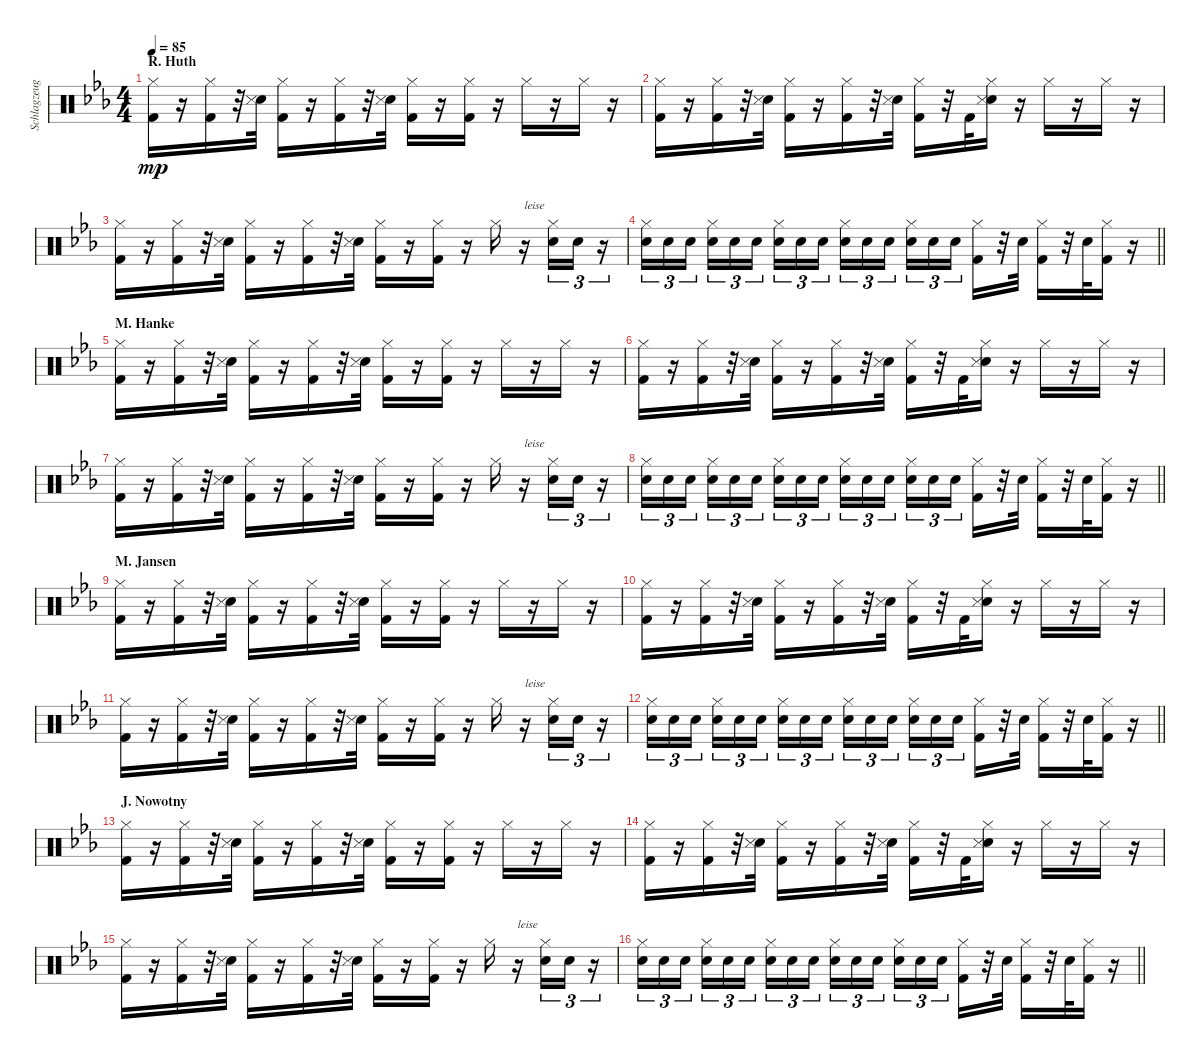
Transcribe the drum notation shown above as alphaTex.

\track ("Schlagzeug" "Schlagzeug") {instrument percussion}
\staff {score}
\articulation defaults
\ts (4 4)
\section ("" "R. Huth")
\tempo 85
\clef neutral
\ks cminor
("Hi-Hat (closed)" "Kick (hit) 2").16{dy mp} r.16 ("Hi-Hat (closed)" "Kick (hit) 2").16 r.32 ("Electric Snare (hit)" "Snare (side stick) 3").32 ("Hi-Hat (closed)" "Kick (hit) 2").16 r.16 ("Hi-Hat (closed)" "Kick (hit) 2").16 r.32 ("Electric Snare (hit)" "Snare (side stick) 3").32 ("Hi-Hat (closed)" "Kick (hit) 2").16 r.16 ("Hi-Hat (closed)" "Kick (hit) 2").16 r.16 "Hi-Hat (closed)".16 r.16 "Hi-Hat (closed)".16 r.16 |
("Hi-Hat (closed)" "Kick (hit) 2").16 r.16 ("Hi-Hat (closed)" "Kick (hit) 2").16 r.32 ("Electric Snare (hit)" "Snare (side stick) 3").32 ("Hi-Hat (closed)" "Kick (hit) 2").16 r.16 ("Hi-Hat (closed)" "Kick (hit) 2").16 r.32 ("Electric Snare (hit)" "Snare (side stick) 3").32 ("Hi-Hat (closed)" "Kick (hit) 2").16 r.32 "Kick (hit) 2".32 ("Hi-Hat (closed)" "Electric Snare (hit)" "Snare (side stick) 3").16 r.16 "Hi-Hat (closed)".16 r.16 "Hi-Hat (closed)".16 r.16 |
("Hi-Hat (closed)" "Kick (hit) 2").16 r.16 ("Hi-Hat (closed)" "Kick (hit) 2").16 r.32 ("Electric Snare (hit)" "Snare (side stick) 3").32 ("Hi-Hat (closed)" "Kick (hit) 2").16 r.16 ("Hi-Hat (closed)" "Kick (hit) 2").16 r.32 ("Electric Snare (hit)" "Snare (side stick) 3").32 ("Hi-Hat (closed)" "Kick (hit) 2").16 r.16 ("Hi-Hat (closed)" "Kick (hit) 2").16 r.16 "Hi-Hat (closed)".16 r.16{txt "leise" volume 5} ("Hi-Hat (closed)" "Electric Snare (hit)").16{tu (3 2)} "Electric Snare (hit)".16{tu (3 2)} r.16{tu (3 2)} |
\barLineRight lightlight
("Hi-Hat (closed)" "Electric Snare (hit)").16{tu (3 2) volume 15} "Electric Snare (hit)".16{tu (3 2)} "Electric Snare (hit)".16{tu (3 2) beam splitsecondary} ("Hi-Hat (closed)" "Electric Snare (hit)").16{tu (3 2)} "Electric Snare (hit)".16{tu (3 2)} "Electric Snare (hit)".16{tu (3 2)} ("Hi-Hat (closed)" "Electric Snare (hit)").16{tu (3 2)} "Electric Snare (hit)".16{tu (3 2)} "Electric Snare (hit)".16{tu (3 2) beam splitsecondary} ("Hi-Hat (closed)" "Electric Snare (hit)").16{tu (3 2)} "Electric Snare (hit)".16{tu (3 2)} "Electric Snare (hit)".16{tu (3 2)} ("Hi-Hat (closed)" "Electric Snare (hit)").16{tu (3 2)} "Electric Snare (hit)".16{tu (3 2)} "Electric Snare (hit)".16{tu (3 2) beam splitsecondary} ("Hi-Hat (closed)" "Kick (hit) 2").16 r.32 "Electric Snare (hit)".32 ("Hi-Hat (closed)" "Kick (hit) 2").16 r.32 "Electric Snare (hit)".32 ("Hi-Hat (closed)" "Kick (hit) 2").16 r.16 |
\section ("" "M. Hanke")
("Hi-Hat (closed)" "Kick (hit) 2").16 r.16 ("Hi-Hat (closed)" "Kick (hit) 2").16 r.32 ("Electric Snare (hit)" "Snare (side stick) 3").32 ("Hi-Hat (closed)" "Kick (hit) 2").16 r.16 ("Hi-Hat (closed)" "Kick (hit) 2").16 r.32 ("Electric Snare (hit)" "Snare (side stick) 3").32 ("Hi-Hat (closed)" "Kick (hit) 2").16 r.16 ("Hi-Hat (closed)" "Kick (hit) 2").16 r.16 "Hi-Hat (closed)".16 r.16 "Hi-Hat (closed)".16 r.16 |
("Hi-Hat (closed)" "Kick (hit) 2").16 r.16 ("Hi-Hat (closed)" "Kick (hit) 2").16 r.32 ("Electric Snare (hit)" "Snare (side stick) 3").32 ("Hi-Hat (closed)" "Kick (hit) 2").16 r.16 ("Hi-Hat (closed)" "Kick (hit) 2").16 r.32 ("Electric Snare (hit)" "Snare (side stick) 3").32 ("Hi-Hat (closed)" "Kick (hit) 2").16 r.32 "Kick (hit) 2".32 ("Hi-Hat (closed)" "Electric Snare (hit)" "Snare (side stick) 3").16 r.16 "Hi-Hat (closed)".16 r.16 "Hi-Hat (closed)".16 r.16 |
("Hi-Hat (closed)" "Kick (hit) 2").16 r.16 ("Hi-Hat (closed)" "Kick (hit) 2").16 r.32 ("Electric Snare (hit)" "Snare (side stick) 3").32 ("Hi-Hat (closed)" "Kick (hit) 2").16 r.16 ("Hi-Hat (closed)" "Kick (hit) 2").16 r.32 ("Electric Snare (hit)" "Snare (side stick) 3").32 ("Hi-Hat (closed)" "Kick (hit) 2").16 r.16 ("Hi-Hat (closed)" "Kick (hit) 2").16 r.16 "Hi-Hat (closed)".16 r.16{txt "leise" volume 5} ("Hi-Hat (closed)" "Electric Snare (hit)").16{tu (3 2)} "Electric Snare (hit)".16{tu (3 2)} r.16{tu (3 2)} |
\barLineRight lightlight
("Hi-Hat (closed)" "Electric Snare (hit)").16{tu (3 2) volume 15} "Electric Snare (hit)".16{tu (3 2)} "Electric Snare (hit)".16{tu (3 2) beam splitsecondary} ("Hi-Hat (closed)" "Electric Snare (hit)").16{tu (3 2)} "Electric Snare (hit)".16{tu (3 2)} "Electric Snare (hit)".16{tu (3 2)} ("Hi-Hat (closed)" "Electric Snare (hit)").16{tu (3 2)} "Electric Snare (hit)".16{tu (3 2)} "Electric Snare (hit)".16{tu (3 2) beam splitsecondary} ("Hi-Hat (closed)" "Electric Snare (hit)").16{tu (3 2)} "Electric Snare (hit)".16{tu (3 2)} "Electric Snare (hit)".16{tu (3 2)} ("Hi-Hat (closed)" "Electric Snare (hit)").16{tu (3 2)} "Electric Snare (hit)".16{tu (3 2)} "Electric Snare (hit)".16{tu (3 2) beam splitsecondary} ("Hi-Hat (closed)" "Kick (hit) 2").16 r.32 "Electric Snare (hit)".32 ("Hi-Hat (closed)" "Kick (hit) 2").16 r.32 "Electric Snare (hit)".32 ("Hi-Hat (closed)" "Kick (hit) 2").16 r.16 |
\section ("" "M. Jansen")
("Hi-Hat (closed)" "Kick (hit) 2").16 r.16 ("Hi-Hat (closed)" "Kick (hit) 2").16 r.32 ("Electric Snare (hit)" "Snare (side stick) 3").32 ("Hi-Hat (closed)" "Kick (hit) 2").16 r.16 ("Hi-Hat (closed)" "Kick (hit) 2").16 r.32 ("Electric Snare (hit)" "Snare (side stick) 3").32 ("Hi-Hat (closed)" "Kick (hit) 2").16 r.16 ("Hi-Hat (closed)" "Kick (hit) 2").16 r.16 "Hi-Hat (closed)".16 r.16 "Hi-Hat (closed)".16 r.16 |
("Hi-Hat (closed)" "Kick (hit) 2").16 r.16 ("Hi-Hat (closed)" "Kick (hit) 2").16 r.32 ("Electric Snare (hit)" "Snare (side stick) 3").32 ("Hi-Hat (closed)" "Kick (hit) 2").16 r.16 ("Hi-Hat (closed)" "Kick (hit) 2").16 r.32 ("Electric Snare (hit)" "Snare (side stick) 3").32 ("Hi-Hat (closed)" "Kick (hit) 2").16 r.32 "Kick (hit) 2".32 ("Hi-Hat (closed)" "Electric Snare (hit)" "Snare (side stick) 3").16 r.16 "Hi-Hat (closed)".16 r.16 "Hi-Hat (closed)".16 r.16 |
("Hi-Hat (closed)" "Kick (hit) 2").16 r.16 ("Hi-Hat (closed)" "Kick (hit) 2").16 r.32 ("Electric Snare (hit)" "Snare (side stick) 3").32 ("Hi-Hat (closed)" "Kick (hit) 2").16 r.16 ("Hi-Hat (closed)" "Kick (hit) 2").16 r.32 ("Electric Snare (hit)" "Snare (side stick) 3").32 ("Hi-Hat (closed)" "Kick (hit) 2").16 r.16 ("Hi-Hat (closed)" "Kick (hit) 2").16 r.16 "Hi-Hat (closed)".16 r.16{txt "leise" volume 5} ("Hi-Hat (closed)" "Electric Snare (hit)").16{tu (3 2)} "Electric Snare (hit)".16{tu (3 2)} r.16{tu (3 2)} |
\barLineRight lightlight
("Hi-Hat (closed)" "Electric Snare (hit)").16{tu (3 2) volume 15} "Electric Snare (hit)".16{tu (3 2)} "Electric Snare (hit)".16{tu (3 2) beam splitsecondary} ("Hi-Hat (closed)" "Electric Snare (hit)").16{tu (3 2)} "Electric Snare (hit)".16{tu (3 2)} "Electric Snare (hit)".16{tu (3 2)} ("Hi-Hat (closed)" "Electric Snare (hit)").16{tu (3 2)} "Electric Snare (hit)".16{tu (3 2)} "Electric Snare (hit)".16{tu (3 2) beam splitsecondary} ("Hi-Hat (closed)" "Electric Snare (hit)").16{tu (3 2)} "Electric Snare (hit)".16{tu (3 2)} "Electric Snare (hit)".16{tu (3 2)} ("Hi-Hat (closed)" "Electric Snare (hit)").16{tu (3 2)} "Electric Snare (hit)".16{tu (3 2)} "Electric Snare (hit)".16{tu (3 2) beam splitsecondary} ("Hi-Hat (closed)" "Kick (hit) 2").16 r.32 "Electric Snare (hit)".32 ("Hi-Hat (closed)" "Kick (hit) 2").16 r.32 "Electric Snare (hit)".32 ("Hi-Hat (closed)" "Kick (hit) 2").16 r.16 |
\section ("" "J. Nowotny")
("Hi-Hat (closed)" "Kick (hit) 2").16 r.16 ("Hi-Hat (closed)" "Kick (hit) 2").16 r.32 ("Electric Snare (hit)" "Snare (side stick) 3").32 ("Hi-Hat (closed)" "Kick (hit) 2").16 r.16 ("Hi-Hat (closed)" "Kick (hit) 2").16 r.32 ("Electric Snare (hit)" "Snare (side stick) 3").32 ("Hi-Hat (closed)" "Kick (hit) 2").16 r.16 ("Hi-Hat (closed)" "Kick (hit) 2").16 r.16 "Hi-Hat (closed)".16 r.16 "Hi-Hat (closed)".16 r.16 |
("Hi-Hat (closed)" "Kick (hit) 2").16 r.16 ("Hi-Hat (closed)" "Kick (hit) 2").16 r.32 ("Electric Snare (hit)" "Snare (side stick) 3").32 ("Hi-Hat (closed)" "Kick (hit) 2").16 r.16 ("Hi-Hat (closed)" "Kick (hit) 2").16 r.32 ("Electric Snare (hit)" "Snare (side stick) 3").32 ("Hi-Hat (closed)" "Kick (hit) 2").16 r.32 "Kick (hit) 2".32 ("Hi-Hat (closed)" "Electric Snare (hit)" "Snare (side stick) 3").16 r.16 "Hi-Hat (closed)".16 r.16 "Hi-Hat (closed)".16 r.16 |
("Hi-Hat (closed)" "Kick (hit) 2").16 r.16 ("Hi-Hat (closed)" "Kick (hit) 2").16 r.32 ("Electric Snare (hit)" "Snare (side stick) 3").32 ("Hi-Hat (closed)" "Kick (hit) 2").16 r.16 ("Hi-Hat (closed)" "Kick (hit) 2").16 r.32 ("Electric Snare (hit)" "Snare (side stick) 3").32 ("Hi-Hat (closed)" "Kick (hit) 2").16 r.16 ("Hi-Hat (closed)" "Kick (hit) 2").16 r.16 "Hi-Hat (closed)".16 r.16{txt "leise" volume 5} ("Hi-Hat (closed)" "Electric Snare (hit)").16{tu (3 2)} "Electric Snare (hit)".16{tu (3 2)} r.16{tu (3 2)} |
\barLineRight lightlight
("Hi-Hat (closed)" "Electric Snare (hit)").16{tu (3 2) volume 15} "Electric Snare (hit)".16{tu (3 2)} "Electric Snare (hit)".16{tu (3 2) beam splitsecondary} ("Hi-Hat (closed)" "Electric Snare (hit)").16{tu (3 2)} "Electric Snare (hit)".16{tu (3 2)} "Electric Snare (hit)".16{tu (3 2)} ("Hi-Hat (closed)" "Electric Snare (hit)").16{tu (3 2)} "Electric Snare (hit)".16{tu (3 2)} "Electric Snare (hit)".16{tu (3 2) beam splitsecondary} ("Hi-Hat (closed)" "Electric Snare (hit)").16{tu (3 2)} "Electric Snare (hit)".16{tu (3 2)} "Electric Snare (hit)".16{tu (3 2)} ("Hi-Hat (closed)" "Electric Snare (hit)").16{tu (3 2)} "Electric Snare (hit)".16{tu (3 2)} "Electric Snare (hit)".16{tu (3 2) beam splitsecondary} ("Hi-Hat (closed)" "Kick (hit) 2").16 r.32 "Electric Snare (hit)".32 ("Hi-Hat (closed)" "Kick (hit) 2").16 r.32 "Electric Snare (hit)".32 ("Hi-Hat (closed)" "Kick (hit) 2").16 r.16
